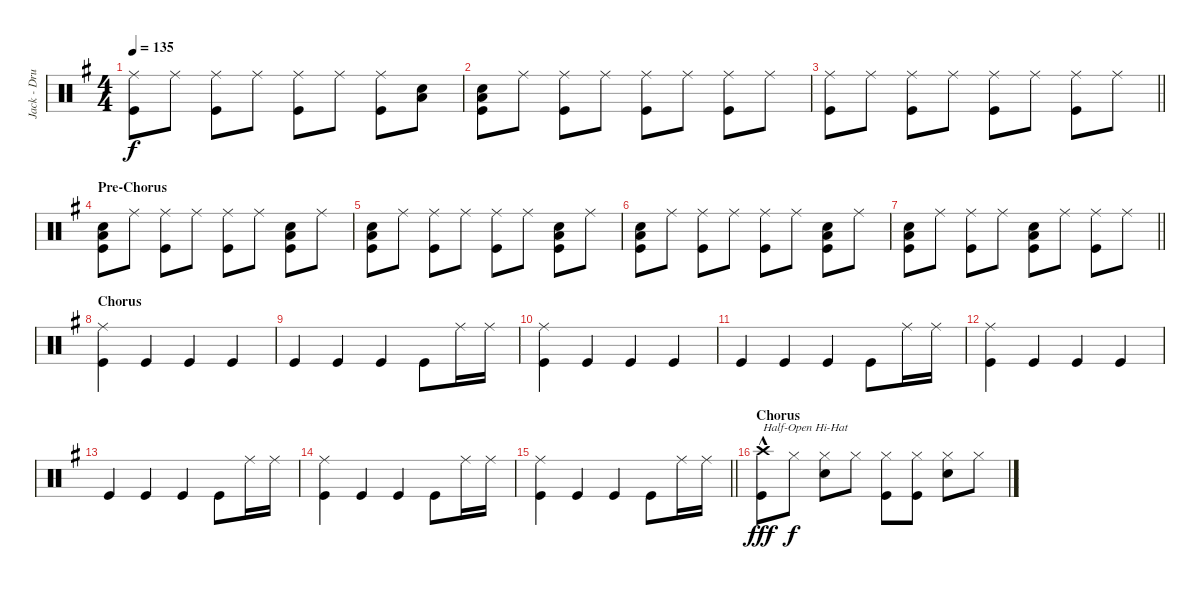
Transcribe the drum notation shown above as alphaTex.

\track ("Jack - Drums" "Jack - Dru") {instrument percussion}
\staff {score}
\articulation defaults
\ts (4 4)
\tempo 135
\clef neutral
\ks g
("Ride (middle)" "Kick (hit)").8{dy f} "Ride (middle)".8 ("Ride (middle)" "Kick (hit)").8 "Ride (middle)".8 ("Ride (middle)" "Kick (hit)").8 "Ride (middle)".8 ("Ride (middle)" "Kick (hit)").8 ("Snare (hit) 2" "Low Tom (hit)").8 |
("Snare (hit) 2" "Low Tom (hit)" "Kick (hit)").8 "Ride (middle)".8 ("Ride (middle)" "Kick (hit)").8 "Ride (middle)".8 ("Ride (middle)" "Kick (hit)").8 "Ride (middle)".8 ("Ride (middle)" "Kick (hit)").8 "Ride (middle)".8 |
\barLineRight lightlight
("Ride (middle)" "Kick (hit)").8 "Ride (middle)".8 ("Ride (middle)" "Kick (hit)").8 "Ride (middle)".8 ("Ride (middle)" "Kick (hit)").8 "Ride (middle)".8 ("Ride (middle)" "Kick (hit)").8 "Ride (middle)".8 |
\section ("" "Pre-Chorus")
("Snare (hit) 2" "Low Tom (hit)" "Kick (hit)").8 "Ride (middle)".8 ("Ride (middle)" "Kick (hit)").8 "Ride (middle)".8 ("Ride (middle)" "Kick (hit)").8 "Ride (middle)".8 ("Snare (hit) 2" "Low Tom (hit)" "Kick (hit)").8 "Ride (middle)".8 |
("Snare (hit) 2" "Low Tom (hit)" "Kick (hit)").8 "Ride (middle)".8 ("Ride (middle)" "Kick (hit)").8 "Ride (middle)".8 ("Ride (middle)" "Kick (hit)").8 "Ride (middle)".8 ("Snare (hit) 2" "Low Tom (hit)" "Kick (hit)").8 "Ride (middle)".8 |
("Snare (hit) 2" "Low Tom (hit)" "Kick (hit)").8 "Ride (middle)".8 ("Ride (middle)" "Kick (hit)").8 "Ride (middle)".8 ("Ride (middle)" "Kick (hit)").8 "Ride (middle)".8 ("Snare (hit) 2" "Low Tom (hit)" "Kick (hit)").8 "Ride (middle)".8 |
\barLineRight lightlight
("Snare (hit) 2" "Low Tom (hit)" "Kick (hit)").8 "Ride (middle)".8 ("Ride (middle)" "Kick (hit)").8 "Ride (middle)".8 ("Snare (hit) 2" "Low Tom (hit)" "Kick (hit)").8 "Ride (middle)".8 ("Ride (middle)" "Kick (hit)").8 "Ride (middle)".8 |
\section ("" "Chorus")
("Ride (middle)" "Kick (hit)").4 "Kick (hit)".4 "Kick (hit)".4 "Kick (hit)".4 |
"Kick (hit)".4 "Kick (hit)".4 "Kick (hit)".4 "Kick (hit)".8 "Ride (middle)".16 "Ride (middle)".16 |
("Ride (middle)" "Kick (hit)").4 "Kick (hit)".4 "Kick (hit)".4 "Kick (hit)".4 |
"Kick (hit)".4 "Kick (hit)".4 "Kick (hit)".4 "Kick (hit)".8 "Ride (middle)".16 "Ride (middle)".16 |
("Ride (middle)" "Kick (hit)").4 "Kick (hit)".4 "Kick (hit)".4 "Kick (hit)".4 |
"Kick (hit)".4 "Kick (hit)".4 "Kick (hit)".4 "Kick (hit)".8 "Ride (middle)".16 "Ride (middle)".16 |
("Ride (middle)" "Kick (hit)").4 "Kick (hit)".4 "Kick (hit)".4 "Kick (hit)".8 "Ride (middle)".16 "Ride (middle)".16 |
\barLineRight lightlight
("Ride (middle)" "Kick (hit)").4 "Kick (hit)".4 "Kick (hit)".4 "Kick (hit)".8 "Ride (middle)".16 "Ride (middle)".16 |
\section ("" "Chorus")
("Crash high (hit)"{hac} "Kick (hit)").8{txt "Half-Open Hi-Hat" dy fff} "Hi-Hat (closed)".8{dy f} ("Hi-Hat (closed)" "Snare (hit) 2").8 "Hi-Hat (closed)".8 ("Hi-Hat (closed)" "Kick (hit)").8 ("Hi-Hat (closed)" "Kick (hit)").8 ("Hi-Hat (closed)" "Snare (hit) 2").8 "Hi-Hat (closed)".8
